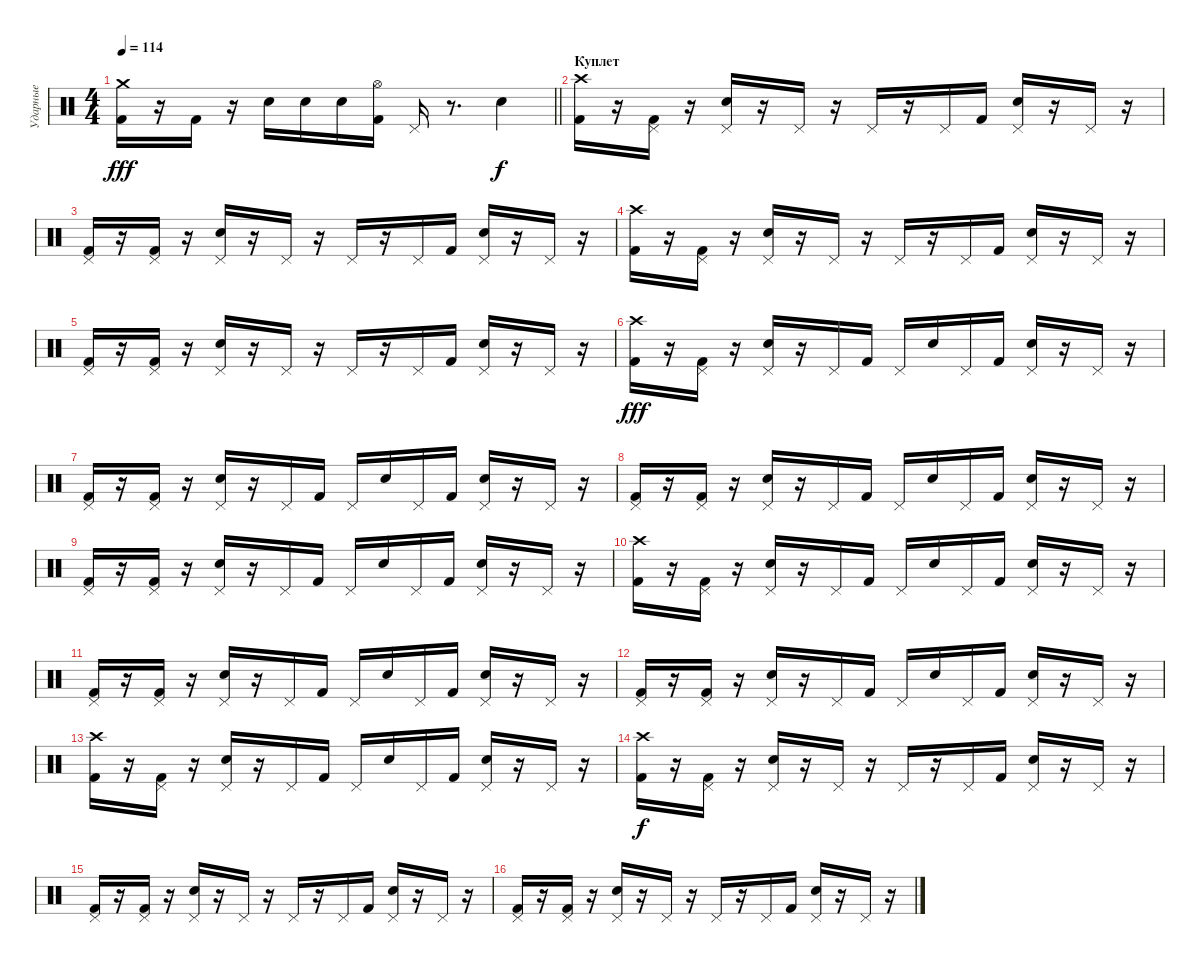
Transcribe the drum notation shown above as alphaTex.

\track ("Ударные" "Ударные") {instrument percussion}
\staff {score}
\articulation defaults
\ts (4 4)
\tempo 114
\clef neutral
\barLineRight lightlight
\ks c
("Kick (hit) 2" "Crash medium (hit)").16{dy fff} r.16 "Kick (hit) 2".16 r.16 "Electric Snare (hit)".16 "Electric Snare (hit)".16 "Electric Snare (hit)".16 ("Kick (hit) 2" "Hi-Hat (open)").16 "Pedal Hi-Hat (hit)".16 r.8{d} "Snare (hit) 2".4{dy f} |
\section ("" "Куплет")
("Kick (hit) 2" "Crash high (hit)").16 r.16 ("Kick (hit) 2" "Pedal Hi-Hat (hit)").16 r.16 ("Electric Snare (hit)" "Pedal Hi-Hat (hit)").16 r.16 "Pedal Hi-Hat (hit)".16 r.16 "Pedal Hi-Hat (hit)".16 r.16 "Pedal Hi-Hat (hit)".16 "Kick (hit) 2".16 ("Electric Snare (hit)" "Pedal Hi-Hat (hit)").16 r.16 "Pedal Hi-Hat (hit)".16 r.16 |
("Kick (hit) 2" "Pedal Hi-Hat (hit)").16 r.16 ("Kick (hit) 2" "Pedal Hi-Hat (hit)").16 r.16 ("Electric Snare (hit)" "Pedal Hi-Hat (hit)").16 r.16 "Pedal Hi-Hat (hit)".16 r.16 "Pedal Hi-Hat (hit)".16 r.16 "Pedal Hi-Hat (hit)".16 "Kick (hit) 2".16 ("Electric Snare (hit)" "Pedal Hi-Hat (hit)").16 r.16 "Pedal Hi-Hat (hit)".16 r.16 |
("Kick (hit) 2" "Crash high (hit)").16 r.16 ("Kick (hit) 2" "Pedal Hi-Hat (hit)").16 r.16 ("Electric Snare (hit)" "Pedal Hi-Hat (hit)").16 r.16 "Pedal Hi-Hat (hit)".16 r.16 "Pedal Hi-Hat (hit)".16 r.16 "Pedal Hi-Hat (hit)".16 "Kick (hit) 2".16 ("Electric Snare (hit)" "Pedal Hi-Hat (hit)").16 r.16 "Pedal Hi-Hat (hit)".16 r.16 |
("Kick (hit) 2" "Pedal Hi-Hat (hit)").16 r.16 ("Kick (hit) 2" "Pedal Hi-Hat (hit)").16 r.16 ("Electric Snare (hit)" "Pedal Hi-Hat (hit)").16 r.16 "Pedal Hi-Hat (hit)".16 r.16 "Pedal Hi-Hat (hit)".16 r.16 "Pedal Hi-Hat (hit)".16 "Kick (hit) 2".16 ("Electric Snare (hit)" "Pedal Hi-Hat (hit)").16 r.16 "Pedal Hi-Hat (hit)".16 r.16 |
("Kick (hit) 2" "Crash high (hit)").16{dy fff} r.16 ("Kick (hit) 2" "Pedal Hi-Hat (hit)").16 r.16 ("Electric Snare (hit)" "Pedal Hi-Hat (hit)").16 r.16 "Pedal Hi-Hat (hit)".16 "Kick (hit) 2".16 "Pedal Hi-Hat (hit)".16 "Electric Snare (hit)".16 "Pedal Hi-Hat (hit)".16 "Kick (hit) 2".16 ("Electric Snare (hit)" "Pedal Hi-Hat (hit)").16 r.16 "Pedal Hi-Hat (hit)".16 r.16 |
("Kick (hit) 2" "Pedal Hi-Hat (hit)").16 r.16 ("Kick (hit) 2" "Pedal Hi-Hat (hit)").16 r.16 ("Electric Snare (hit)" "Pedal Hi-Hat (hit)").16 r.16 "Pedal Hi-Hat (hit)".16 "Kick (hit) 2".16 "Pedal Hi-Hat (hit)".16 "Electric Snare (hit)".16 "Pedal Hi-Hat (hit)".16 "Kick (hit) 2".16 ("Electric Snare (hit)" "Pedal Hi-Hat (hit)").16 r.16 "Pedal Hi-Hat (hit)".16 r.16 |
("Kick (hit) 2" "Pedal Hi-Hat (hit)").16 r.16 ("Kick (hit) 2" "Pedal Hi-Hat (hit)").16 r.16 ("Electric Snare (hit)" "Pedal Hi-Hat (hit)").16 r.16 "Pedal Hi-Hat (hit)".16 "Kick (hit) 2".16 "Pedal Hi-Hat (hit)".16 "Electric Snare (hit)".16 "Pedal Hi-Hat (hit)".16 "Kick (hit) 2".16 ("Electric Snare (hit)" "Pedal Hi-Hat (hit)").16 r.16 "Pedal Hi-Hat (hit)".16 r.16 |
("Kick (hit) 2" "Pedal Hi-Hat (hit)").16 r.16 ("Kick (hit) 2" "Pedal Hi-Hat (hit)").16 r.16 ("Electric Snare (hit)" "Pedal Hi-Hat (hit)").16 r.16 "Pedal Hi-Hat (hit)".16 "Kick (hit) 2".16 "Pedal Hi-Hat (hit)".16 "Electric Snare (hit)".16 "Pedal Hi-Hat (hit)".16 "Kick (hit) 2".16 ("Electric Snare (hit)" "Pedal Hi-Hat (hit)").16 r.16 "Pedal Hi-Hat (hit)".16 r.16 |
("Kick (hit) 2" "Crash high (hit)").16 r.16 ("Kick (hit) 2" "Pedal Hi-Hat (hit)").16 r.16 ("Electric Snare (hit)" "Pedal Hi-Hat (hit)").16 r.16 "Pedal Hi-Hat (hit)".16 "Kick (hit) 2".16 "Pedal Hi-Hat (hit)".16 "Electric Snare (hit)".16 "Pedal Hi-Hat (hit)".16 "Kick (hit) 2".16 ("Electric Snare (hit)" "Pedal Hi-Hat (hit)").16 r.16 "Pedal Hi-Hat (hit)".16 r.16 |
("Kick (hit) 2" "Pedal Hi-Hat (hit)").16 r.16 ("Kick (hit) 2" "Pedal Hi-Hat (hit)").16 r.16 ("Electric Snare (hit)" "Pedal Hi-Hat (hit)").16 r.16 "Pedal Hi-Hat (hit)".16 "Kick (hit) 2".16 "Pedal Hi-Hat (hit)".16 "Electric Snare (hit)".16 "Pedal Hi-Hat (hit)".16 "Kick (hit) 2".16 ("Electric Snare (hit)" "Pedal Hi-Hat (hit)").16 r.16 "Pedal Hi-Hat (hit)".16 r.16 |
("Kick (hit) 2" "Pedal Hi-Hat (hit)").16 r.16 ("Kick (hit) 2" "Pedal Hi-Hat (hit)").16 r.16 ("Electric Snare (hit)" "Pedal Hi-Hat (hit)").16 r.16 "Pedal Hi-Hat (hit)".16 "Kick (hit) 2".16 "Pedal Hi-Hat (hit)".16 "Electric Snare (hit)".16 "Pedal Hi-Hat (hit)".16 "Kick (hit) 2".16 ("Electric Snare (hit)" "Pedal Hi-Hat (hit)").16 r.16 "Pedal Hi-Hat (hit)".16 r.16 |
("Kick (hit) 2" "Crash high (hit)").16 r.16 ("Kick (hit) 2" "Pedal Hi-Hat (hit)").16 r.16 ("Electric Snare (hit)" "Pedal Hi-Hat (hit)").16 r.16 "Pedal Hi-Hat (hit)".16 "Kick (hit) 2".16 "Pedal Hi-Hat (hit)".16 "Electric Snare (hit)".16 "Pedal Hi-Hat (hit)".16 "Kick (hit) 2".16 ("Electric Snare (hit)" "Pedal Hi-Hat (hit)").16 r.16 "Pedal Hi-Hat (hit)".16 r.16 |
("Kick (hit) 2" "Crash high (hit)").16{dy f} r.16 ("Kick (hit) 2" "Pedal Hi-Hat (hit)").16 r.16 ("Electric Snare (hit)" "Pedal Hi-Hat (hit)").16 r.16 "Pedal Hi-Hat (hit)".16 r.16 "Pedal Hi-Hat (hit)".16 r.16 "Pedal Hi-Hat (hit)".16 "Kick (hit) 2".16 ("Electric Snare (hit)" "Pedal Hi-Hat (hit)").16 r.16 "Pedal Hi-Hat (hit)".16 r.16 |
("Kick (hit) 2" "Pedal Hi-Hat (hit)").16 r.16 ("Kick (hit) 2" "Pedal Hi-Hat (hit)").16 r.16 ("Electric Snare (hit)" "Pedal Hi-Hat (hit)").16 r.16 "Pedal Hi-Hat (hit)".16 r.16 "Pedal Hi-Hat (hit)".16 r.16 "Pedal Hi-Hat (hit)".16 "Kick (hit) 2".16 ("Electric Snare (hit)" "Pedal Hi-Hat (hit)").16 r.16 "Pedal Hi-Hat (hit)".16 r.16 |
("Kick (hit) 2" "Pedal Hi-Hat (hit)").16 r.16 ("Kick (hit) 2" "Pedal Hi-Hat (hit)").16 r.16 ("Electric Snare (hit)" "Pedal Hi-Hat (hit)").16 r.16 "Pedal Hi-Hat (hit)".16 r.16 "Pedal Hi-Hat (hit)".16 r.16 "Pedal Hi-Hat (hit)".16 "Kick (hit) 2".16 ("Electric Snare (hit)" "Pedal Hi-Hat (hit)").16 r.16 "Pedal Hi-Hat (hit)".16 r.16
